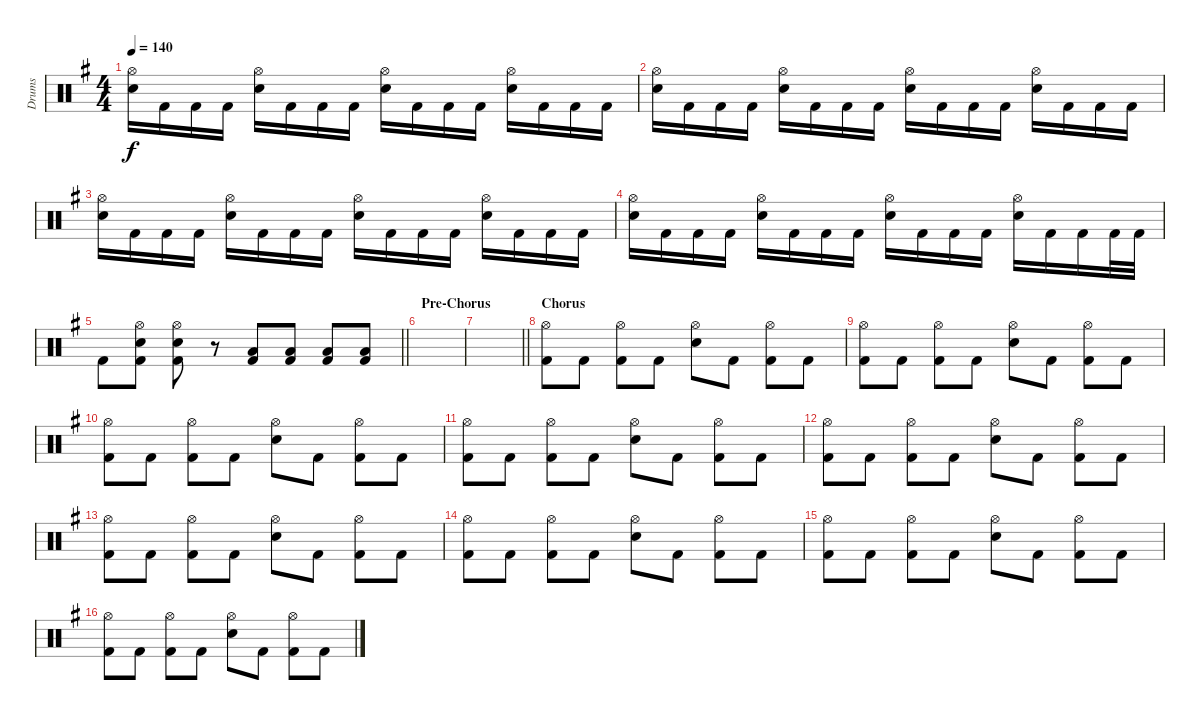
\track ("Drums" "Drums") {instrument percussion}
\staff {score}
\articulation defaults
\ts (4 4)
\tempo 140
\clef neutral
\ks g
("Hi-Hat (open)" "Electric Snare (hit)").16{dy f} "Kick (hit) 2".16 "Kick (hit) 2".16 "Kick (hit) 2".16 ("Hi-Hat (open)" "Electric Snare (hit)").16 "Kick (hit) 2".16 "Kick (hit) 2".16 "Kick (hit) 2".16 ("Hi-Hat (open)" "Electric Snare (hit)").16 "Kick (hit) 2".16 "Kick (hit) 2".16 "Kick (hit) 2".16 ("Hi-Hat (open)" "Electric Snare (hit)").16 "Kick (hit) 2".16 "Kick (hit) 2".16 "Kick (hit) 2".16 |
("Hi-Hat (open)" "Electric Snare (hit)").16 "Kick (hit) 2".16 "Kick (hit) 2".16 "Kick (hit) 2".16 ("Hi-Hat (open)" "Electric Snare (hit)").16 "Kick (hit) 2".16 "Kick (hit) 2".16 "Kick (hit) 2".16 ("Hi-Hat (open)" "Electric Snare (hit)").16 "Kick (hit) 2".16 "Kick (hit) 2".16 "Kick (hit) 2".16 ("Hi-Hat (open)" "Electric Snare (hit)").16 "Kick (hit) 2".16 "Kick (hit) 2".16 "Kick (hit) 2".16 |
("Hi-Hat (open)" "Electric Snare (hit)").16 "Kick (hit) 2".16 "Kick (hit) 2".16 "Kick (hit) 2".16 ("Hi-Hat (open)" "Electric Snare (hit)").16 "Kick (hit) 2".16 "Kick (hit) 2".16 "Kick (hit) 2".16 ("Hi-Hat (open)" "Electric Snare (hit)").16 "Kick (hit) 2".16 "Kick (hit) 2".16 "Kick (hit) 2".16 ("Hi-Hat (open)" "Electric Snare (hit)").16 "Kick (hit) 2".16 "Kick (hit) 2".16 "Kick (hit) 2".16 |
("Hi-Hat (open)" "Electric Snare (hit)").16 "Kick (hit) 2".16 "Kick (hit) 2".16 "Kick (hit) 2".16 ("Hi-Hat (open)" "Electric Snare (hit)").16 "Kick (hit) 2".16 "Kick (hit) 2".16 "Kick (hit) 2".16 ("Hi-Hat (open)" "Electric Snare (hit)").16 "Kick (hit) 2".16 "Kick (hit) 2".16 "Kick (hit) 2".16 ("Hi-Hat (open)" "Electric Snare (hit)").16 "Kick (hit) 2".16 "Kick (hit) 2".16 "Kick (hit) 2".32 "Kick (hit) 2".32 |
\barLineRight lightlight "Kick (hit) 2".8
("Hi-Hat (open)" "Electric Snare (hit)" "Kick (hit) 2").8 ("Hi-Hat (open)" "Electric Snare (hit)" "Kick (hit) 2").8 r.8 ("Kick (hit) 2" "Low Floor Tom (hit)").8 ("Kick (hit) 2" "Low Floor Tom (hit)").8 ("Kick (hit) 2" "Low Floor Tom (hit)").8 ("Kick (hit) 2" "Low Floor Tom (hit)").8 |
\section ("" "Pre-Chorus")
|
\barLineRight lightlight
|
\section ("" "Chorus")
("Hi-Hat (open)" "Kick (hit) 2").8 "Kick (hit) 2".8 ("Hi-Hat (open)" "Kick (hit) 2").8 "Kick (hit) 2".8 ("Hi-Hat (open)" "Electric Snare (hit)").8 "Kick (hit) 2".8 ("Hi-Hat (open)" "Kick (hit) 2").8 "Kick (hit) 2".8 |
("Hi-Hat (open)" "Kick (hit) 2").8 "Kick (hit) 2".8 ("Hi-Hat (open)" "Kick (hit) 2").8 "Kick (hit) 2".8 ("Hi-Hat (open)" "Electric Snare (hit)").8 "Kick (hit) 2".8 ("Hi-Hat (open)" "Kick (hit) 2").8 "Kick (hit) 2".8 |
("Hi-Hat (open)" "Kick (hit) 2").8 "Kick (hit) 2".8 ("Hi-Hat (open)" "Kick (hit) 2").8 "Kick (hit) 2".8 ("Hi-Hat (open)" "Electric Snare (hit)").8 "Kick (hit) 2".8 ("Hi-Hat (open)" "Kick (hit) 2").8 "Kick (hit) 2".8 |
("Hi-Hat (open)" "Kick (hit) 2").8 "Kick (hit) 2".8 ("Hi-Hat (open)" "Kick (hit) 2").8 "Kick (hit) 2".8 ("Hi-Hat (open)" "Electric Snare (hit)").8 "Kick (hit) 2".8 ("Hi-Hat (open)" "Kick (hit) 2").8 "Kick (hit) 2".8 |
("Hi-Hat (open)" "Kick (hit) 2").8 "Kick (hit) 2".8 ("Hi-Hat (open)" "Kick (hit) 2").8 "Kick (hit) 2".8 ("Hi-Hat (open)" "Electric Snare (hit)").8 "Kick (hit) 2".8 ("Hi-Hat (open)" "Kick (hit) 2").8 "Kick (hit) 2".8 |
("Hi-Hat (open)" "Kick (hit) 2").8 "Kick (hit) 2".8 ("Hi-Hat (open)" "Kick (hit) 2").8 "Kick (hit) 2".8 ("Hi-Hat (open)" "Electric Snare (hit)").8 "Kick (hit) 2".8 ("Hi-Hat (open)" "Kick (hit) 2").8 "Kick (hit) 2".8 |
("Hi-Hat (open)" "Kick (hit) 2").8 "Kick (hit) 2".8 ("Hi-Hat (open)" "Kick (hit) 2").8 "Kick (hit) 2".8 ("Hi-Hat (open)" "Electric Snare (hit)").8 "Kick (hit) 2".8 ("Hi-Hat (open)" "Kick (hit) 2").8 "Kick (hit) 2".8 |
("Hi-Hat (open)" "Kick (hit) 2").8 "Kick (hit) 2".8 ("Hi-Hat (open)" "Kick (hit) 2").8 "Kick (hit) 2".8 ("Hi-Hat (open)" "Electric Snare (hit)").8 "Kick (hit) 2".8 ("Hi-Hat (open)" "Kick (hit) 2").8 "Kick (hit) 2".8 |
("Hi-Hat (open)" "Kick (hit) 2").8 "Kick (hit) 2".8 ("Hi-Hat (open)" "Kick (hit) 2").8 "Kick (hit) 2".8 ("Hi-Hat (open)" "Electric Snare (hit)").8 "Kick (hit) 2".8 ("Hi-Hat (open)" "Kick (hit) 2").8 "Kick (hit) 2".8
